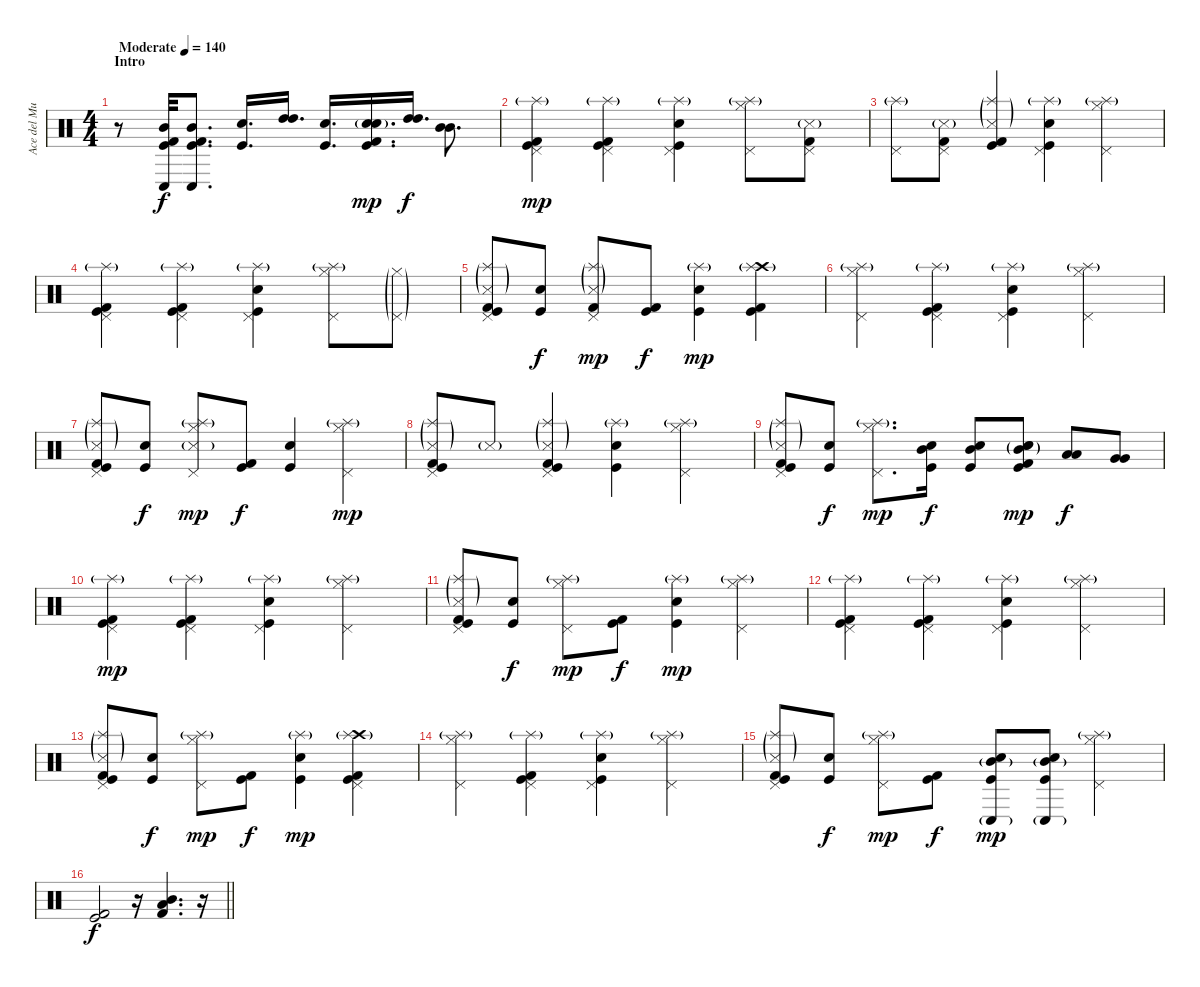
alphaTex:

\track ("Ace del Mundo(Drums)" "Ace del Mu") {instrument percussion}
\staff {score}
\articulation defaults
\ts (4 4)
\section ("" "Intro")
\tempo (140 "Moderate")
\clef neutral
\ks c
r.8{dy f} ("Kick (hit) 2" "Kick (hit)" "Mid Tom (hit)" "Conga low (hit)").32 ("Kick (hit) 2" "Kick (hit)" "Mid Tom (hit)" "Conga low (hit)").8{d} ("Electric Snare (hit)" "Kick (hit)").16{d} ("High Tom (hit)" "High Tom (hit)").16{d} ("Electric Snare (hit)" "Kick (hit)").16{d} ("Electric Snare (hit)" "Kick (hit) 2" "Kick (hit)" "Snare (hit) 2"{g}).16{d dy mp} ("High Tom (hit)" "High Tom (hit)").16{d dy f} ("Mid Tom (hit)" "Mid Tom (hit)").8{d} |
("Pedal Hi-Hat (hit)" "Kick (hit) 2" "Kick (hit)" "Splash (hit)"{g}).4{dy mp} ("Pedal Hi-Hat (hit)" "Kick (hit) 2" "Kick (hit)" "Splash (hit)"{g}).4 ("Pedal Hi-Hat (hit)" "Electric Snare (hit)" "Kick (hit)" "Splash (hit)"{g}).4 ("Pedal Hi-Hat (hit)" "Hi-Hat (closed)" "Splash (hit)"{g}).8 ("Pedal Hi-Hat (hit)" "Kick (hit) 2" "Snare (side stick) 3"{g}).8 |
("Pedal Hi-Hat (hit)" "Splash (hit)"{g}).8 ("Pedal Hi-Hat (hit)" "Kick (hit) 2" "Snare (side stick) 3"{g}).8 ("Kick (hit) 2" "Kick (hit)" "Snare (side stick) 3"{g} "Splash (hit)"{g}).4 ("Pedal Hi-Hat (hit)" "Electric Snare (hit)" "Kick (hit)" "Splash (hit)"{g}).4 ("Pedal Hi-Hat (hit)" "Hi-Hat (closed)" "Splash (hit)"{g}).4 |
("Pedal Hi-Hat (hit)" "Kick (hit) 2" "Kick (hit)" "Splash (hit)"{g}).4 ("Pedal Hi-Hat (hit)" "Kick (hit) 2" "Kick (hit)" "Splash (hit)"{g}).4 ("Pedal Hi-Hat (hit)" "Electric Snare (hit)" "Kick (hit)" "Splash (hit)"{g}).4 ("Pedal Hi-Hat (hit)" "Hi-Hat (closed)" "Splash (hit)"{g}).8 ("Pedal Hi-Hat (hit)"{g} "Hi-Hat (closed)"{g}).8 |
("Pedal Hi-Hat (hit)" "Kick (hit) 2" "Kick (hit)" "Snare (side stick) 3"{g} "Splash (hit)"{g}).8 ("Electric Snare (hit)" "Kick (hit)").8{dy f} ("Pedal Hi-Hat (hit)" "Kick (hit) 2" "Snare (side stick) 3"{g} "Splash (hit)"{g}).8{dy mp} ("Kick (hit) 2" "Kick (hit)").8{dy f} ("Electric Snare (hit)" "Kick (hit)" "Splash (hit)"{g}).4{dy mp} ("Crash high (hit)"{g} "Splash (hit)"{g} "Kick (hit) 2" "Kick (hit)").4 |
("Pedal Hi-Hat (hit)" "Hi-Hat (closed)" "Splash (hit)"{g}).4 ("Pedal Hi-Hat (hit)" "Kick (hit) 2" "Kick (hit)" "Splash (hit)"{g}).4 ("Pedal Hi-Hat (hit)" "Electric Snare (hit)" "Kick (hit)" "Splash (hit)"{g}).4 ("Pedal Hi-Hat (hit)" "Hi-Hat (closed)" "Splash (hit)"{g}).4 |
("Pedal Hi-Hat (hit)" "Kick (hit) 2" "Kick (hit)" "Snare (side stick) 3"{g} "Splash (hit)"{g}).8 ("Electric Snare (hit)" "Kick (hit)").8{dy f} ("Pedal Hi-Hat (hit)" "Hi-Hat (closed)" "Snare (side stick) 3"{g} "Splash (hit)"{g}).8{dy mp} ("Kick (hit) 2" "Kick (hit)").8{dy f} ("Electric Snare (hit)" "Kick (hit)").4 ("Pedal Hi-Hat (hit)" "Hi-Hat (closed)" "Splash (hit)"{g}).4{dy mp} |
("Pedal Hi-Hat (hit)" "Kick (hit) 2" "Kick (hit)" "Snare (side stick) 3"{g} "Splash (hit)"{g}).8 "Snare (side stick) 3"{g}.8 ("Pedal Hi-Hat (hit)" "Kick (hit) 2" "Kick (hit)" "Snare (side stick) 3"{g} "Splash (hit)"{g}).4 ("Electric Snare (hit)" "Kick (hit)" "Splash (hit)"{g}).4 ("Pedal Hi-Hat (hit)" "Hi-Hat (closed)" "Splash (hit)"{g}).4 |
("Pedal Hi-Hat (hit)" "Kick (hit) 2" "Kick (hit)" "Snare (side stick) 3"{g} "Splash (hit)"{g}).8 ("Electric Snare (hit)" "Kick (hit)").8{dy f} ("Pedal Hi-Hat (hit)" "Hi-Hat (closed)" "Splash (hit)"{g}).8{d dy mp} ("Electric Snare (hit)" "Kick (hit)" "Mid Tom (hit)").16{dy f} ("Electric Snare (hit)" "Kick (hit)" "Mid Tom (hit)").8 ("Electric Snare (hit)" "Kick (hit)" "Kick (hit) 2" "Snare (hit) 2"{g} "Mid Tom (hit)"{g}).8{dy mp} ("Low Tom (hit)" "Low Tom (hit)").8{dy f} ("Very Low Tom (hit)" "Very Low Tom (hit)").8 |
("Pedal Hi-Hat (hit)" "Kick (hit) 2" "Kick (hit)" "Splash (hit)"{g}).4{dy mp} ("Pedal Hi-Hat (hit)" "Kick (hit) 2" "Kick (hit)" "Splash (hit)"{g}).4 ("Pedal Hi-Hat (hit)" "Electric Snare (hit)" "Kick (hit)" "Splash (hit)"{g}).4 ("Pedal Hi-Hat (hit)" "Hi-Hat (closed)" "Splash (hit)"{g}).4 |
("Pedal Hi-Hat (hit)" "Kick (hit) 2" "Kick (hit)" "Snare (side stick) 3"{g} "Splash (hit)"{g}).8 ("Electric Snare (hit)" "Kick (hit)").8{dy f} ("Pedal Hi-Hat (hit)" "Hi-Hat (closed)" "Splash (hit)"{g}).8{dy mp} ("Kick (hit) 2" "Kick (hit)").8{dy f} ("Electric Snare (hit)" "Kick (hit)" "Splash (hit)"{g}).4{dy mp} ("Pedal Hi-Hat (hit)" "Hi-Hat (closed)" "Splash (hit)"{g}).4 |
("Pedal Hi-Hat (hit)" "Kick (hit) 2" "Kick (hit)" "Splash (hit)"{g}).4 ("Pedal Hi-Hat (hit)" "Kick (hit) 2" "Kick (hit)" "Splash (hit)"{g}).4 ("Pedal Hi-Hat (hit)" "Electric Snare (hit)" "Kick (hit)" "Splash (hit)"{g}).4 ("Pedal Hi-Hat (hit)" "Hi-Hat (closed)" "Splash (hit)"{g}).4 |
("Pedal Hi-Hat (hit)" "Kick (hit) 2" "Kick (hit)" "Snare (side stick) 3"{g} "Splash (hit)"{g}).8 ("Electric Snare (hit)" "Kick (hit)").8{dy f} ("Pedal Hi-Hat (hit)" "Hi-Hat (closed)" "Splash (hit)"{g}).8{dy mp} ("Kick (hit) 2" "Kick (hit)").8{dy f} ("Electric Snare (hit)" "Kick (hit)" "Splash (hit)"{g}).4{dy mp} ("Pedal Hi-Hat (hit)" "Kick (hit) 2" "Kick (hit)" "Crash high (hit)"{g} "Splash (hit)"{g}).4 |
("Pedal Hi-Hat (hit)" "Hi-Hat (closed)" "Splash (hit)"{g}).4 ("Pedal Hi-Hat (hit)" "Kick (hit) 2" "Kick (hit)" "Splash (hit)"{g}).4 ("Pedal Hi-Hat (hit)" "Electric Snare (hit)" "Kick (hit)" "Splash (hit)"{g}).4 ("Pedal Hi-Hat (hit)" "Hi-Hat (closed)" "Splash (hit)"{g}).4 |
("Pedal Hi-Hat (hit)" "Kick (hit) 2" "Kick (hit)" "Snare (side stick) 3"{g} "Splash (hit)"{g}).8 ("Electric Snare (hit)" "Kick (hit)").8{dy f} ("Pedal Hi-Hat (hit)" "Hi-Hat (closed)" "Splash (hit)"{g}).8{dy mp} ("Kick (hit) 2" "Kick (hit)").8{dy f} ("Electric Snare (hit)" "Kick (hit)" "Mid Tom (hit)"{g} "Conga low (hit)"{g}).8{dy mp} ("Electric Snare (hit)" "Kick (hit)" "Mid Tom (hit)"{g} "Conga low (hit)"{g}).8 ("Pedal Hi-Hat (hit)" "Hi-Hat (closed)" "Splash (hit)"{g}).4 |
\barLineRight lightlight
("Kick (hit) 2" "Kick (hit)").2{dy f} r.16 ("Mid Tom (hit)" "Low Tom (hit)" "Kick (hit) 2").4{d bd 60} r.16
